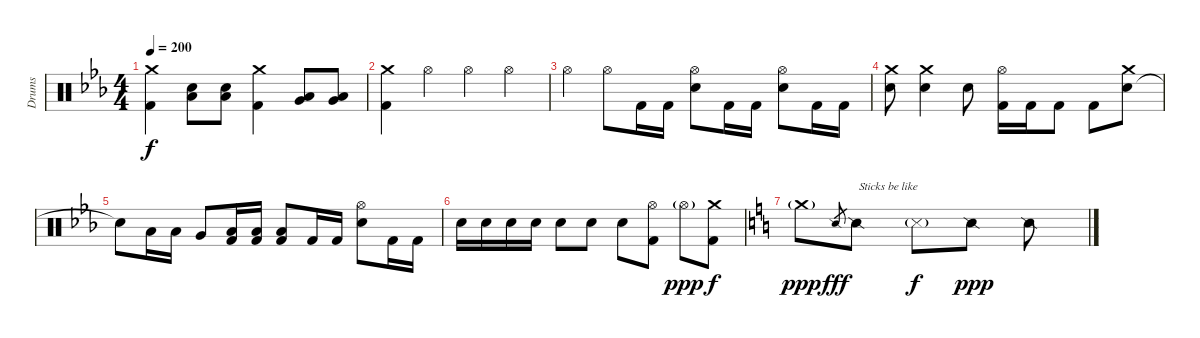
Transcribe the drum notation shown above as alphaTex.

\track ("Drums" "Drums") {instrument percussion}
\staff {score}
\articulation defaults
\ts (4 4)
\tempo 200
\clef neutral
\ks eb
("Kick (hit) 2" "Crash medium (hit)").4{dy f} ("Electric Snare (hit)" "Low Floor Tom (hit)").8 ("Electric Snare (hit)" "Low Floor Tom (hit)").8 ("Kick (hit) 2" "Crash medium (hit)").4 ("Very Low Tom (hit)" "Low Floor Tom (hit)").8 ("Very Low Tom (hit)" "Low Floor Tom (hit)").8 |
("Kick (hit) 2" "Crash medium (hit)").4 "Hi-Hat (open)".4 "Hi-Hat (open)".4 "Hi-Hat (open)".4 |
"Hi-Hat (open)".4 "Hi-Hat (open)".8 "Kick (hit) 2".16 "Kick (hit) 2".16 ("Electric Snare (hit)" "Hi-Hat (open)").8 "Kick (hit) 2".16 "Kick (hit) 2".16 ("Electric Snare (hit)" "Hi-Hat (open)").8 "Kick (hit) 2".16 "Kick (hit) 2".16 |
("Electric Snare (hit)" "Crash medium (hit)").8 ("Electric Snare (hit)" "Crash medium (hit)").4 "Electric Snare (hit)".8 ("Kick (hit) 2" "Hi-Hat (open)").16 "Kick (hit) 2".16 "Kick (hit) 2".8 "Kick (hit) 2".8 ("Electric Snare (hit)" "Crash medium (hit)").8 |
"Snare (hit)"{t}.8 "Low Tom (hit)".16 "Low Tom (hit)".16 "Very Low Tom (hit)".8 ("Kick (hit) 2" "Low Floor Tom (hit)").16 ("Kick (hit) 2" "Low Floor Tom (hit)").16 ("Kick (hit) 2" "Low Floor Tom (hit)").8 "Kick (hit) 2".16 "Kick (hit) 2".16 ("Electric Snare (hit)" "Hi-Hat (open)").8 "Kick (hit) 2".16 "Kick (hit) 2".16 |
"Electric Snare (hit)".16 "Electric Snare (hit)".16 "Electric Snare (hit)".16 "Electric Snare (hit)".16 "Electric Snare (hit)".8 "Electric Snare (hit)".8 "Electric Snare (hit)".8 ("Kick (hit) 2" "Hi-Hat (open)").8 "Hi-Hat (open)"{g}.8{dy ppp} ("Kick (hit) 2" "Crash medium (hit)").8{dy f} |
\ks c "Crash medium (hit)"{g}.8{dy ppp} "Snare (side stick) 2".8{gr dy fff} "Snare (side stick) 2".8{txt "Sticks be like"} "Metronome (hit)"{g}.8{dy f} "Snare (side stick) 2".8{dy ppp} "Snare (side stick) 2".8
